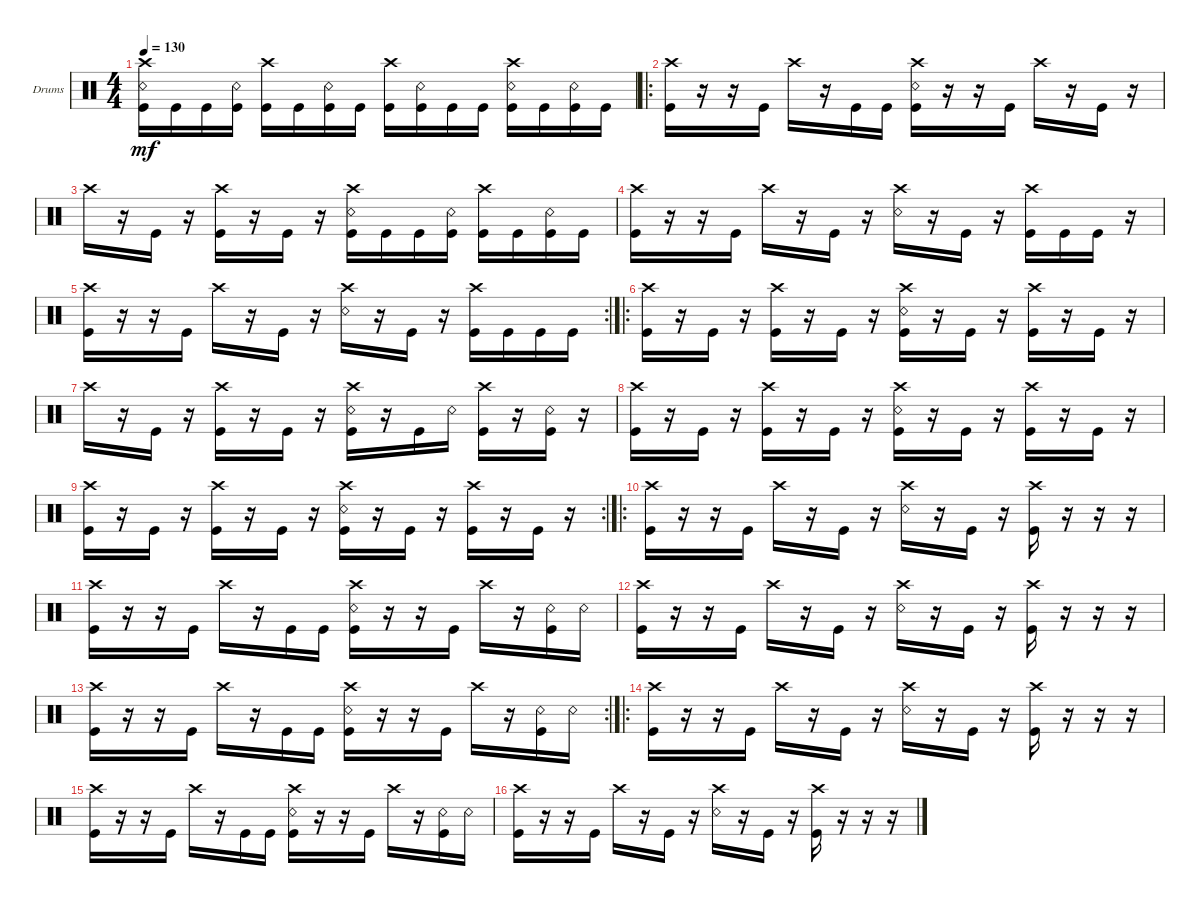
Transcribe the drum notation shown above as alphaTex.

\defaultSystemsLayout 4
\bracketExtendMode groupsimilarinstruments
\firstSystemTrackNameOrientation horizontal
\otherSystemsTrackNameOrientation horizontal
\track ("Drums" "Drums") {instrument percussion}
\staff {score}
\articulation defaults
\ts (4 4)
\tempo 130
\clef neutral
\ks c
("Kick (hit)" "Snare (rim shot)" "Crash high (hit)").16{dy mf} "Kick (hit)".16 "Kick (hit)".16 ("Kick (hit)" "Snare (rim shot)").16 ("Kick (hit)" "Crash high (hit)").16 "Kick (hit)".16 ("Kick (hit)" "Snare (rim shot)").16 "Kick (hit)".16 ("Kick (hit)" "Crash high (hit)").16 ("Kick (hit)" "Snare (rim shot)").16 "Kick (hit)".16 "Kick (hit)".16 ("Kick (hit)" "Snare (rim shot)" "Crash high (hit)").16 "Kick (hit)".16 ("Kick (hit)" "Snare (rim shot)").16 "Kick (hit)".16 |
\ro
("Kick (hit)" "Crash high (hit)").16 r.16 r.16 "Kick (hit)".16 "Crash high (hit)".16 r.16 "Kick (hit)".16 "Kick (hit)".16 ("Kick (hit)" "Crash high (hit)" "Snare (rim shot)").16 r.16 r.16 "Kick (hit)".16 "Crash high (hit)".16 r.16 "Kick (hit)".16 r.16 |
"Crash high (hit)".16 r.16 "Kick (hit)".16 r.16 ("Crash high (hit)" "Kick (hit)").16 r.16 "Kick (hit)".16 r.16 ("Crash high (hit)" "Kick (hit)" "Snare (rim shot)").16 "Kick (hit)".16 "Kick (hit)".16 ("Kick (hit)" "Snare (rim shot)").16 ("Crash high (hit)" "Kick (hit)").16 "Kick (hit)".16 ("Kick (hit)" "Snare (rim shot)").16 "Kick (hit)".16 |
("Kick (hit)" "Crash high (hit)").16 r.16 r.16 "Kick (hit)".16 "Crash high (hit)".16 r.16 "Kick (hit)".16 r.16 ("Crash high (hit)" "Snare (rim shot)").16 r.16 "Kick (hit)".16 r.16 ("Crash high (hit)" "Kick (hit)").16 "Kick (hit)".16 "Kick (hit)".16 r.16 |
\rc 2
("Kick (hit)" "Crash high (hit)").16 r.16 r.16 "Kick (hit)".16 "Crash high (hit)".16 r.16 "Kick (hit)".16 r.16 ("Crash high (hit)" "Snare (rim shot)").16 r.16 "Kick (hit)".16 r.16 ("Crash high (hit)" "Kick (hit)").16 "Kick (hit)".16 "Kick (hit)".16 "Kick (hit)".16 |
\ro
("Kick (hit)" "Crash high (hit)").16 r.16 "Kick (hit)".16 r.16 ("Crash high (hit)" "Kick (hit)").16 r.16 "Kick (hit)".16 r.16 ("Kick (hit)" "Crash high (hit)" "Snare (rim shot)").16 r.16 "Kick (hit)".16 r.16 ("Crash high (hit)" "Kick (hit)").16 r.16 "Kick (hit)".16 r.16 |
"Crash high (hit)".16 r.16 "Kick (hit)".16 r.16 ("Crash high (hit)" "Kick (hit)").16 r.16 "Kick (hit)".16 r.16 ("Crash high (hit)" "Kick (hit)" "Snare (rim shot)").16 r.16 "Kick (hit)".16 "Snare (rim shot)".16 ("Crash high (hit)" "Kick (hit)").16 r.16 ("Kick (hit)" "Snare (rim shot)").16 r.16 |
("Kick (hit)" "Crash high (hit)").16 r.16 "Kick (hit)".16 r.16 ("Crash high (hit)" "Kick (hit)").16 r.16 "Kick (hit)".16 r.16 ("Crash high (hit)" "Snare (rim shot)" "Kick (hit)").16 r.16 "Kick (hit)".16 r.16 ("Crash high (hit)" "Kick (hit)").16 r.16 "Kick (hit)".16 r.16 |
\rc 2
("Kick (hit)" "Crash high (hit)").16 r.16 "Kick (hit)".16 r.16 ("Crash high (hit)" "Kick (hit)").16 r.16 "Kick (hit)".16 r.16 ("Crash high (hit)" "Snare (rim shot)" "Kick (hit)").16 r.16 "Kick (hit)".16 r.16 ("Crash high (hit)" "Kick (hit)").16 r.16 "Kick (hit)".16 r.16 |
\ro
("Kick (hit)" "Crash high (hit)").16 r.16 r.16 "Kick (hit)".16 "Crash high (hit)".16 r.16 "Kick (hit)".16 r.16 ("Crash high (hit)" "Snare (rim shot)").16 r.16 "Kick (hit)".16 r.16 ("Kick (hit)" "Crash high (hit)").16 r.16 r.16 r.16 |
("Kick (hit)" "Crash high (hit)").16 r.16 r.16 "Kick (hit)".16 "Crash high (hit)".16 r.16 "Kick (hit)".16 "Kick (hit)".16 ("Kick (hit)" "Crash high (hit)" "Snare (rim shot)").16 r.16 r.16 "Kick (hit)".16 "Crash high (hit)".16 r.16 ("Kick (hit)" "Snare (rim shot)").16 "Snare (rim shot)".16 |
("Kick (hit)" "Crash high (hit)").16 r.16 r.16 "Kick (hit)".16 "Crash high (hit)".16 r.16 "Kick (hit)".16 r.16 ("Crash high (hit)" "Snare (rim shot)").16 r.16 "Kick (hit)".16 r.16 ("Kick (hit)" "Crash high (hit)").16 r.16 r.16 r.16 |
\rc 2
("Kick (hit)" "Crash high (hit)").16 r.16 r.16 "Kick (hit)".16 "Crash high (hit)".16 r.16 "Kick (hit)".16 "Kick (hit)".16 ("Kick (hit)" "Crash high (hit)" "Snare (rim shot)").16 r.16 r.16 "Kick (hit)".16 "Crash high (hit)".16 r.16 ("Kick (hit)" "Snare (rim shot)").16 "Snare (rim shot)".16 |
\ro
("Kick (hit)" "Crash high (hit)").16 r.16 r.16 "Kick (hit)".16 "Crash high (hit)".16 r.16 "Kick (hit)".16 r.16 ("Crash high (hit)" "Snare (rim shot)").16 r.16 "Kick (hit)".16 r.16 ("Kick (hit)" "Crash high (hit)").16 r.16 r.16 r.16 |
("Kick (hit)" "Crash high (hit)").16 r.16 r.16 "Kick (hit)".16 "Crash high (hit)".16 r.16 "Kick (hit)".16 "Kick (hit)".16 ("Kick (hit)" "Crash high (hit)" "Snare (rim shot)").16 r.16 r.16 "Kick (hit)".16 "Crash high (hit)".16 r.16 ("Kick (hit)" "Snare (rim shot)").16 "Snare (rim shot)".16 |
("Kick (hit)" "Crash high (hit)").16 r.16 r.16 "Kick (hit)".16 "Crash high (hit)".16 r.16 "Kick (hit)".16 r.16 ("Crash high (hit)" "Snare (rim shot)").16 r.16 "Kick (hit)".16 r.16 ("Kick (hit)" "Crash high (hit)").16 r.16 r.16 r.16
